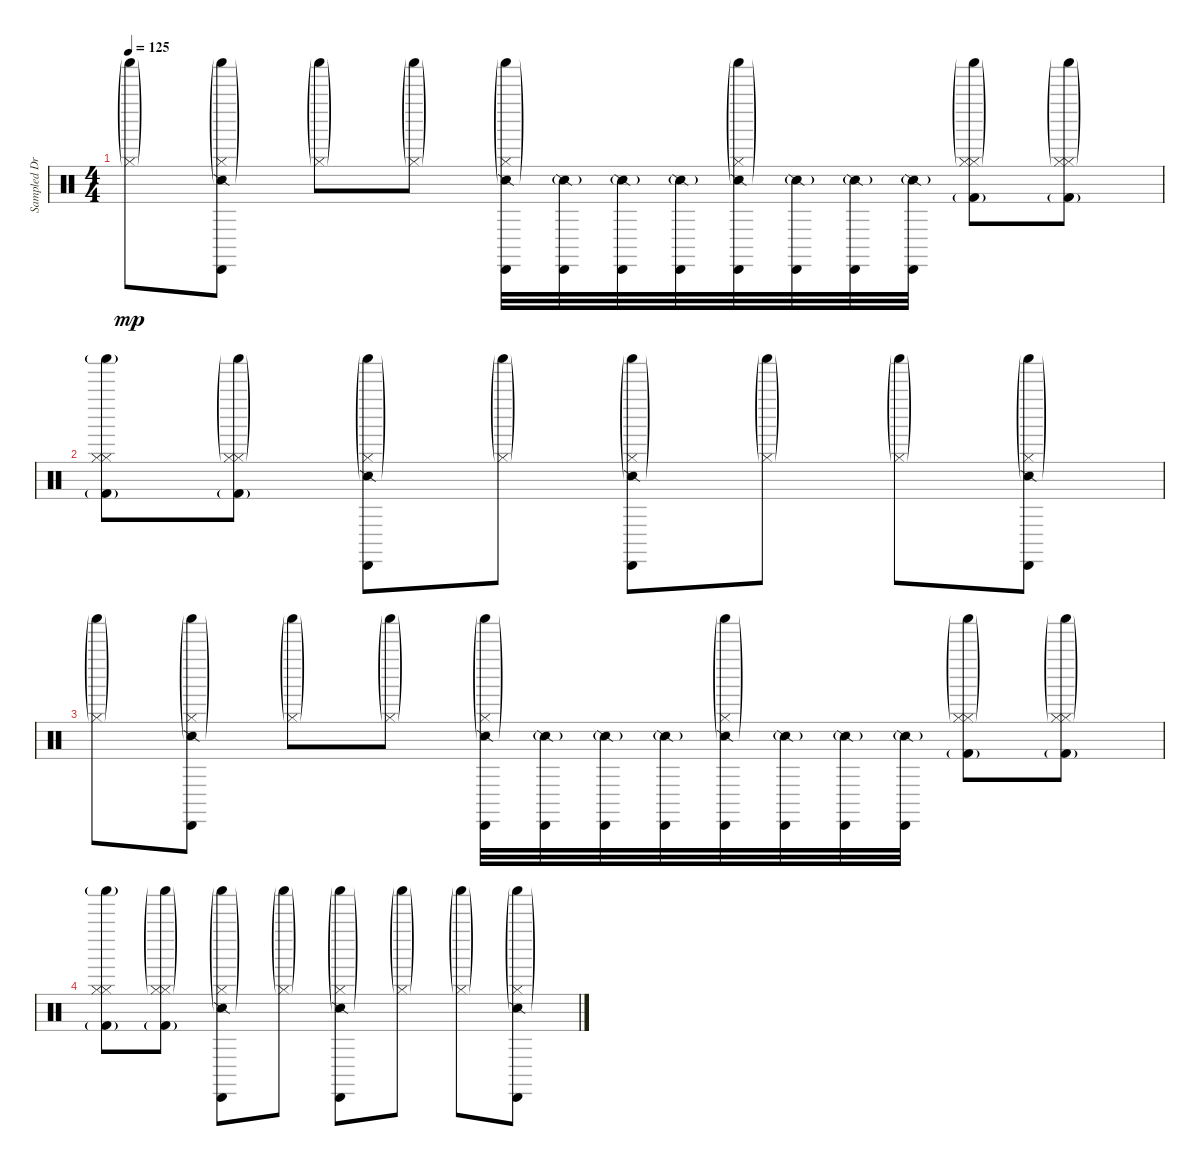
\track ("Sampled Drums" "Sampled Dr") {instrument percussion}
\staff {score}
\articulation defaults
\ts (4 4)
\tempo 125
\clef neutral
\ks c
("Shaker (hit)"{g} "Hi-Hat (closed)"{g}).8{dy mp} ("Shaker (hit)"{g} "Hi-Hat (closed)"{g} "Snare (side stick) 2"{g} "Cabasa (hit)").8 ("Shaker (hit)"{g} "Hi-Hat (closed)"{g}).8 ("Shaker (hit)"{g} "Hi-Hat (closed)"{g}).8 ("Shaker (hit)"{g} "Hi-Hat (closed)"{g} "Snare (side stick) 2"{g} "Cabasa (hit)").32 ("Snare (side stick) 2"{g} "Cabasa (hit)").32 ("Snare (side stick) 2"{g} "Cabasa (hit)").32 ("Snare (side stick) 2"{g} "Cabasa (hit)").32 ("Shaker (hit)"{g} "Hi-Hat (closed)"{g} "Snare (side stick) 2"{g} "Cabasa (hit)").32 ("Snare (side stick) 2"{g} "Cabasa (hit)").32 ("Snare (side stick) 2"{g} "Cabasa (hit)").32 ("Snare (side stick) 2"{g} "Cabasa (hit)").32 ("Shaker (hit)"{g} "Hi-Hat (closed)"{g} "Kick (hit) 2"{g} "Hi-Hat (closed)").8 ("Shaker (hit)"{g} "Hi-Hat (closed)"{g} "Kick (hit) 2"{g} "Hi-Hat (closed)").8 |
("Shaker (hit)"{g} "Hi-Hat (closed)" "Kick (hit) 2"{g} "Hi-Hat (closed)").8 ("Shaker (hit)"{g} "Hi-Hat (closed)"{g} "Kick (hit) 2"{g} "Hi-Hat (closed)").8 ("Shaker (hit)"{g} "Hi-Hat (closed)"{g} "Snare (side stick) 2"{g} "Cabasa (hit)").8 ("Shaker (hit)"{g} "Hi-Hat (closed)"{g}).8 ("Shaker (hit)"{g} "Hi-Hat (closed)"{g} "Snare (side stick) 2"{g} "Cabasa (hit)").8 ("Shaker (hit)"{g} "Hi-Hat (closed)"{g}).8 ("Shaker (hit)"{g} "Hi-Hat (closed)"{g}).8 ("Shaker (hit)"{g} "Hi-Hat (closed)"{g} "Snare (side stick) 2"{g} "Cabasa (hit)").8 |
("Shaker (hit)"{g} "Hi-Hat (closed)"{g}).8 ("Shaker (hit)"{g} "Hi-Hat (closed)"{g} "Snare (side stick) 2"{g} "Cabasa (hit)").8 ("Shaker (hit)"{g} "Hi-Hat (closed)"{g}).8 ("Shaker (hit)"{g} "Hi-Hat (closed)"{g}).8 ("Shaker (hit)"{g} "Hi-Hat (closed)"{g} "Snare (side stick) 2"{g} "Cabasa (hit)").32 ("Snare (side stick) 2"{g} "Cabasa (hit)").32 ("Snare (side stick) 2"{g} "Cabasa (hit)").32 ("Snare (side stick) 2"{g} "Cabasa (hit)").32 ("Shaker (hit)"{g} "Hi-Hat (closed)"{g} "Snare (side stick) 2"{g} "Cabasa (hit)").32 ("Snare (side stick) 2"{g} "Cabasa (hit)").32 ("Snare (side stick) 2"{g} "Cabasa (hit)").32 ("Snare (side stick) 2"{g} "Cabasa (hit)").32 ("Shaker (hit)"{g} "Hi-Hat (closed)"{g} "Kick (hit) 2"{g} "Hi-Hat (closed)").8 ("Shaker (hit)"{g} "Hi-Hat (closed)"{g} "Kick (hit) 2"{g} "Hi-Hat (closed)").8 |
("Shaker (hit)"{g} "Hi-Hat (closed)" "Kick (hit) 2"{g} "Hi-Hat (closed)").8 ("Shaker (hit)"{g} "Hi-Hat (closed)"{g} "Kick (hit) 2"{g} "Hi-Hat (closed)").8 ("Shaker (hit)"{g} "Hi-Hat (closed)"{g} "Snare (side stick) 2"{g} "Cabasa (hit)").8 ("Shaker (hit)"{g} "Hi-Hat (closed)"{g}).8 ("Shaker (hit)"{g} "Hi-Hat (closed)"{g} "Snare (side stick) 2"{g} "Cabasa (hit)").8 ("Shaker (hit)"{g} "Hi-Hat (closed)"{g}).8 ("Shaker (hit)"{g} "Hi-Hat (closed)"{g}).8 ("Shaker (hit)"{g} "Hi-Hat (closed)"{g} "Snare (side stick) 2"{g} "Cabasa (hit)").8
